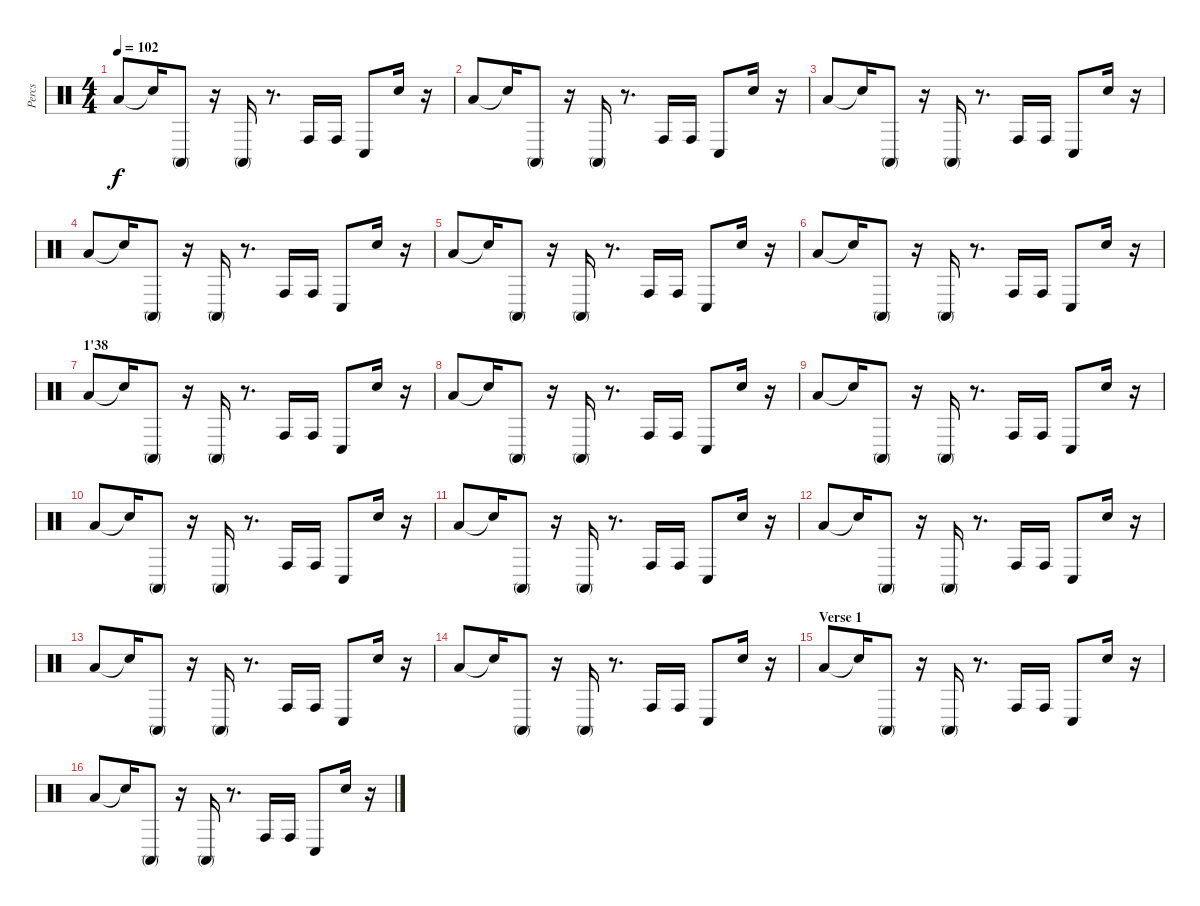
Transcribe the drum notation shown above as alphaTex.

\track ("Percs" "Percs") {instrument percussion}
\staff {score}
\articulation defaults
\ts (4 4)
\tempo 102
\clef neutral
\ks c "Low Floor Tom (hit)".8{dy f} "Snare (hit)"{t}.16 "Conga high (mute)".8
r.16 "Conga high (mute)".16 r.8{d} "Conga high (hit)".16 "Conga high (hit)".16 "Conga low (hit)".8 "Hand Clap (hit)".16 r.16 |
"Low Floor Tom (hit)".8 "Snare (hit)"{t}.16 "Conga high (mute)".8 r.16 "Conga high (mute)".16 r.8{d} "Conga high (hit)".16 "Conga high (hit)".16 "Conga low (hit)".8 "Hand Clap (hit)".16 r.16 |
"Low Floor Tom (hit)".8 "Snare (hit)"{t}.16 "Conga high (mute)".8 r.16 "Conga high (mute)".16 r.8{d} "Conga high (hit)".16 "Conga high (hit)".16 "Conga low (hit)".8 "Hand Clap (hit)".16 r.16 |
"Low Floor Tom (hit)".8 "Snare (hit)"{t}.16 "Conga high (mute)".8 r.16 "Conga high (mute)".16 r.8{d} "Conga high (hit)".16 "Conga high (hit)".16 "Conga low (hit)".8 "Hand Clap (hit)".16 r.16 |
"Low Floor Tom (hit)".8 "Snare (hit)"{t}.16 "Conga high (mute)".8 r.16 "Conga high (mute)".16 r.8{d} "Conga high (hit)".16 "Conga high (hit)".16 "Conga low (hit)".8 "Hand Clap (hit)".16 r.16 |
"Low Floor Tom (hit)".8 "Snare (hit)"{t}.16 "Conga high (mute)".8 r.16 "Conga high (mute)".16 r.8{d} "Conga high (hit)".16 "Conga high (hit)".16 "Conga low (hit)".8 "Hand Clap (hit)".16 r.16 |
\section ("" "1'38")
"Low Floor Tom (hit)".8 "Snare (hit)"{t}.16 "Conga high (mute)".8 r.16 "Conga high (mute)".16 r.8{d} "Conga high (hit)".16 "Conga high (hit)".16 "Conga low (hit)".8 "Hand Clap (hit)".16 r.16 |
"Low Floor Tom (hit)".8 "Snare (hit)"{t}.16 "Conga high (mute)".8 r.16 "Conga high (mute)".16 r.8{d} "Conga high (hit)".16 "Conga high (hit)".16 "Conga low (hit)".8 "Hand Clap (hit)".16 r.16 |
"Low Floor Tom (hit)".8 "Snare (hit)"{t}.16 "Conga high (mute)".8 r.16 "Conga high (mute)".16 r.8{d} "Conga high (hit)".16 "Conga high (hit)".16 "Conga low (hit)".8 "Hand Clap (hit)".16 r.16 |
"Low Floor Tom (hit)".8 "Snare (hit)"{t}.16 "Conga high (mute)".8 r.16 "Conga high (mute)".16 r.8{d} "Conga high (hit)".16 "Conga high (hit)".16 "Conga low (hit)".8 "Hand Clap (hit)".16 r.16 |
"Low Floor Tom (hit)".8 "Snare (hit)"{t}.16 "Conga high (mute)".8 r.16 "Conga high (mute)".16 r.8{d} "Conga high (hit)".16 "Conga high (hit)".16 "Conga low (hit)".8 "Hand Clap (hit)".16 r.16 |
"Low Floor Tom (hit)".8 "Snare (hit)"{t}.16 "Conga high (mute)".8 r.16 "Conga high (mute)".16 r.8{d} "Conga high (hit)".16 "Conga high (hit)".16 "Conga low (hit)".8 "Hand Clap (hit)".16 r.16 |
"Low Floor Tom (hit)".8 "Snare (hit)"{t}.16 "Conga high (mute)".8 r.16 "Conga high (mute)".16 r.8{d} "Conga high (hit)".16 "Conga high (hit)".16 "Conga low (hit)".8 "Hand Clap (hit)".16 r.16 |
"Low Floor Tom (hit)".8 "Snare (hit)"{t}.16 "Conga high (mute)".8 r.16 "Conga high (mute)".16 r.8{d} "Conga high (hit)".16 "Conga high (hit)".16 "Conga low (hit)".8 "Hand Clap (hit)".16 r.16 |
\section ("" "Verse 1")
"Low Floor Tom (hit)".8 "Snare (hit)"{t}.16 "Conga high (mute)".8 r.16 "Conga high (mute)".16 r.8{d} "Conga high (hit)".16 "Conga high (hit)".16 "Conga low (hit)".8 "Hand Clap (hit)".16 r.16 |
"Low Floor Tom (hit)".8 "Snare (hit)"{t}.16 "Conga high (mute)".8 r.16 "Conga high (mute)".16 r.8{d} "Conga high (hit)".16 "Conga high (hit)".16 "Conga low (hit)".8 "Hand Clap (hit)".16 r.16
